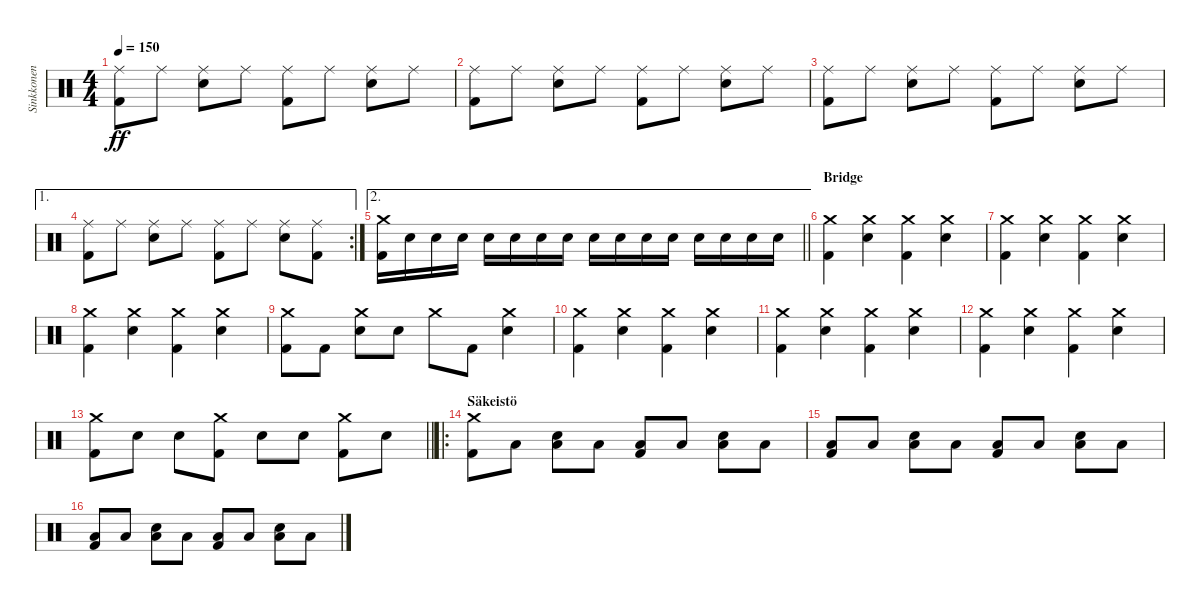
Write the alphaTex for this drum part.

\track ("Sinkkonen" "Sinkkonen") {instrument percussion}
\staff {score}
\articulation defaults
\ts (4 4)
\tempo 150
\clef neutral
\ks c
("Ride (middle)" "Kick (hit) 2").8{dy ff} "Ride (middle)".8 ("Ride (middle)" "Snare (hit) 2").8 "Ride (middle)".8 ("Ride (middle)" "Kick (hit) 2").8 "Ride (middle)".8 ("Ride (middle)" "Snare (hit) 2").8 "Ride (middle)".8 |
("Ride (middle)" "Kick (hit) 2").8 "Ride (middle)".8 ("Ride (middle)" "Snare (hit) 2").8 "Ride (middle)".8 ("Ride (middle)" "Kick (hit) 2").8 "Ride (middle)".8 ("Ride (middle)" "Snare (hit) 2").8 "Ride (middle)".8 |
("Ride (middle)" "Kick (hit) 2").8 "Ride (middle)".8 ("Ride (middle)" "Snare (hit) 2").8 "Ride (middle)".8 ("Ride (middle)" "Kick (hit) 2").8 "Ride (middle)".8 ("Ride (middle)" "Snare (hit) 2").8 "Ride (middle)".8 |
\ae 1
\rc 2
("Ride (middle)" "Kick (hit) 2").8 "Ride (middle)".8 ("Ride (middle)" "Snare (hit) 2").8 "Ride (middle)".8 ("Ride (middle)" "Kick (hit) 2").8 "Ride (middle)".8 ("Ride (middle)" "Snare (hit) 2").8 ("Ride (middle)" "Kick (hit) 2").8 |
\ae 2
\barLineRight lightlight
("Crash medium (hit)" "Kick (hit) 2").16 "Snare (hit) 2".16 "Snare (hit) 2".16 "Snare (hit) 2".16 "Snare (hit) 2".16 "Snare (hit) 2".16 "Snare (hit) 2".16 "Snare (hit) 2".16 "Snare (hit) 2".16 "Snare (hit) 2".16 "Snare (hit) 2".16 "Snare (hit) 2".16 "Snare (hit) 2".16 "Snare (hit) 2".16 "Snare (hit) 2".16 "Snare (hit) 2".16 |
\section ("" "Bridge")
("Crash medium (hit)" "Kick (hit) 2").4 ("Crash medium (hit)" "Snare (hit) 2").4 ("Crash medium (hit)" "Kick (hit) 2").4 ("Crash medium (hit)" "Snare (hit) 2").4 |
("Crash medium (hit)" "Kick (hit) 2").4 ("Crash medium (hit)" "Snare (hit) 2").4 ("Crash medium (hit)" "Kick (hit) 2").4 ("Crash medium (hit)" "Snare (hit) 2").4 |
("Crash medium (hit)" "Kick (hit) 2").4 ("Crash medium (hit)" "Snare (hit) 2").4 ("Crash medium (hit)" "Kick (hit) 2").4 ("Crash medium (hit)" "Snare (hit) 2").4 |
("Crash medium (hit)" "Kick (hit) 2").8 "Kick (hit) 2".8 ("Crash medium (hit)" "Snare (hit) 2").8 "Snare (hit) 2".8 "Crash medium (hit)".8 "Kick (hit) 2".8 ("Crash medium (hit)" "Snare (hit) 2").4 |
("Crash medium (hit)" "Kick (hit) 2").4 ("Crash medium (hit)" "Snare (hit) 2").4 ("Crash medium (hit)" "Kick (hit) 2").4 ("Crash medium (hit)" "Snare (hit) 2").4 |
("Crash medium (hit)" "Kick (hit) 2").4 ("Crash medium (hit)" "Snare (hit) 2").4 ("Crash medium (hit)" "Kick (hit) 2").4 ("Crash medium (hit)" "Snare (hit) 2").4 |
("Crash medium (hit)" "Kick (hit) 2").4 ("Crash medium (hit)" "Snare (hit) 2").4 ("Crash medium (hit)" "Kick (hit) 2").4 ("Crash medium (hit)" "Snare (hit) 2").4 |
\barLineRight lightlight
("Crash medium (hit)" "Kick (hit) 2").8 "Snare (hit) 2".8 "Snare (hit) 2".8 ("Crash medium (hit)" "Kick (hit) 2").8 "Snare (hit) 2".8 "Snare (hit) 2".8 ("Crash medium (hit)" "Kick (hit) 2").8 "Snare (hit) 2".8 |
\ro
\section ("" "Säkeistö")
("Crash medium (hit)" "Kick (hit) 2").8 "Low Floor Tom (hit)".8 ("Snare (hit) 2" "Low Floor Tom (hit)").8 "Low Floor Tom (hit)".8 ("Low Floor Tom (hit)" "Kick (hit) 2").8 "Low Floor Tom (hit)".8 ("Snare (hit) 2" "Low Floor Tom (hit)").8 "Low Floor Tom (hit)".8 |
("Low Floor Tom (hit)" "Kick (hit) 2").8 "Low Floor Tom (hit)".8 ("Snare (hit) 2" "Low Floor Tom (hit)").8 "Low Floor Tom (hit)".8 ("Low Floor Tom (hit)" "Kick (hit) 2").8 "Low Floor Tom (hit)".8 ("Snare (hit) 2" "Low Floor Tom (hit)").8 "Low Floor Tom (hit)".8 |
("Low Floor Tom (hit)" "Kick (hit) 2").8 "Low Floor Tom (hit)".8 ("Snare (hit) 2" "Low Floor Tom (hit)").8 "Low Floor Tom (hit)".8 ("Low Floor Tom (hit)" "Kick (hit) 2").8 "Low Floor Tom (hit)".8 ("Snare (hit) 2" "Low Floor Tom (hit)").8 "Low Floor Tom (hit)".8
